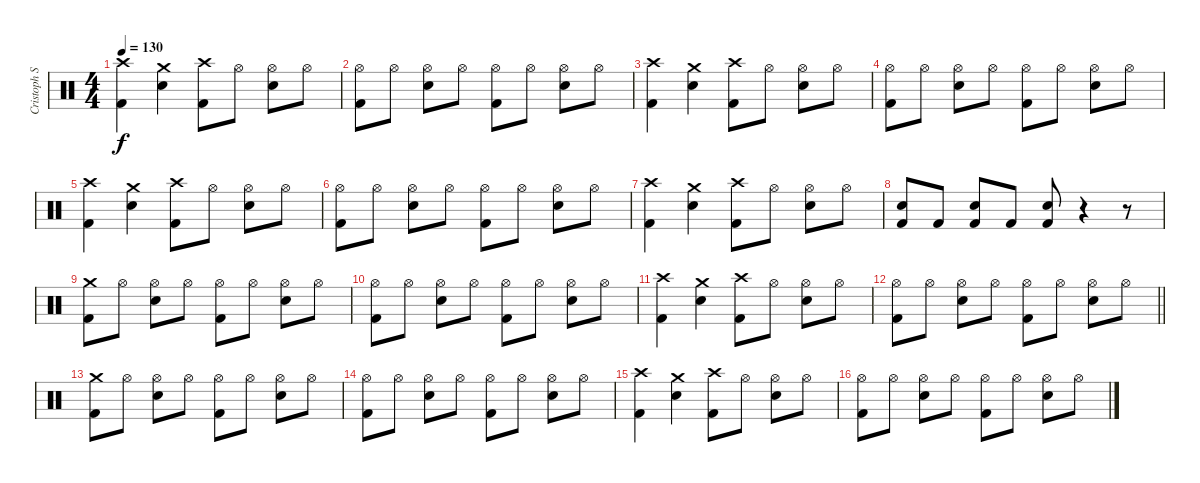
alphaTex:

\track ("Cristoph Schneider" "Cristoph S") {instrument percussion}
\staff {score}
\articulation defaults
\ts (4 4)
\tempo 130
\clef neutral
\ks c
("Crash high (hit)" "Kick (hit) 2").4{dy f} ("Crash medium (hit)" "Electric Snare (hit)").4 ("Crash high (hit)" "Kick (hit) 2").8 "Hi-Hat (open)".8 ("Hi-Hat (open)" "Electric Snare (hit)").8 "Hi-Hat (open)".8 |
("Hi-Hat (open)" "Kick (hit) 2").8 "Hi-Hat (open)".8 ("Hi-Hat (open)" "Electric Snare (hit)").8 "Hi-Hat (open)".8 ("Hi-Hat (open)" "Kick (hit) 2").8 "Hi-Hat (open)".8 ("Hi-Hat (open)" "Electric Snare (hit)").8 "Hi-Hat (open)".8 |
("Crash high (hit)" "Kick (hit) 2").4 ("Crash medium (hit)" "Electric Snare (hit)").4 ("Crash high (hit)" "Kick (hit) 2").8 "Hi-Hat (open)".8 ("Hi-Hat (open)" "Electric Snare (hit)").8 "Hi-Hat (open)".8 |
("Hi-Hat (open)" "Kick (hit) 2").8 "Hi-Hat (open)".8 ("Hi-Hat (open)" "Electric Snare (hit)").8 "Hi-Hat (open)".8 ("Hi-Hat (open)" "Kick (hit) 2").8 "Hi-Hat (open)".8 ("Hi-Hat (open)" "Electric Snare (hit)").8 "Hi-Hat (open)".8 |
("Crash high (hit)" "Kick (hit) 2").4 ("Crash medium (hit)" "Electric Snare (hit)").4 ("Crash high (hit)" "Kick (hit) 2").8 "Hi-Hat (open)".8 ("Hi-Hat (open)" "Electric Snare (hit)").8 "Hi-Hat (open)".8 |
("Hi-Hat (open)" "Kick (hit) 2").8 "Hi-Hat (open)".8 ("Hi-Hat (open)" "Electric Snare (hit)").8 "Hi-Hat (open)".8 ("Hi-Hat (open)" "Kick (hit) 2").8 "Hi-Hat (open)".8 ("Hi-Hat (open)" "Electric Snare (hit)").8 "Hi-Hat (open)".8 |
("Crash high (hit)" "Kick (hit) 2").4 ("Crash medium (hit)" "Electric Snare (hit)").4 ("Crash high (hit)" "Kick (hit) 2").8 "Hi-Hat (open)".8 ("Hi-Hat (open)" "Electric Snare (hit)").8 "Hi-Hat (open)".8 |
("Kick (hit) 2" "Electric Snare (hit)").8 "Kick (hit) 2".8 ("Kick (hit) 2" "Electric Snare (hit)").8 "Kick (hit) 2".8 ("Kick (hit) 2" "Electric Snare (hit)").8 r.4 r.8 |
("Crash medium (hit)" "Kick (hit) 2").8 "Hi-Hat (open)".8 ("Hi-Hat (open)" "Electric Snare (hit)").8 "Hi-Hat (open)".8 ("Hi-Hat (open)" "Kick (hit) 2").8 "Hi-Hat (open)".8 ("Hi-Hat (open)" "Electric Snare (hit)").8 "Hi-Hat (open)".8 |
("Hi-Hat (open)" "Kick (hit) 2").8 "Hi-Hat (open)".8 ("Hi-Hat (open)" "Electric Snare (hit)").8 "Hi-Hat (open)".8 ("Hi-Hat (open)" "Kick (hit) 2").8 "Hi-Hat (open)".8 ("Hi-Hat (open)" "Electric Snare (hit)").8 "Hi-Hat (open)".8 |
("Crash high (hit)" "Kick (hit) 2").4 ("Crash medium (hit)" "Electric Snare (hit)").4 ("Crash high (hit)" "Kick (hit) 2").8 "Hi-Hat (open)".8 ("Hi-Hat (open)" "Electric Snare (hit)").8 "Hi-Hat (open)".8 |
\barLineRight lightlight
("Hi-Hat (open)" "Kick (hit) 2").8 "Hi-Hat (open)".8 ("Hi-Hat (open)" "Electric Snare (hit)").8 "Hi-Hat (open)".8 ("Hi-Hat (open)" "Kick (hit) 2").8 "Hi-Hat (open)".8 ("Hi-Hat (open)" "Electric Snare (hit)").8 "Hi-Hat (open)".8 |
("Crash medium (hit)" "Kick (hit) 2").8 "Hi-Hat (open)".8 ("Hi-Hat (open)" "Electric Snare (hit)").8 "Hi-Hat (open)".8 ("Hi-Hat (open)" "Kick (hit) 2").8 "Hi-Hat (open)".8 ("Hi-Hat (open)" "Electric Snare (hit)").8 "Hi-Hat (open)".8 |
("Hi-Hat (open)" "Kick (hit) 2").8 "Hi-Hat (open)".8 ("Hi-Hat (open)" "Electric Snare (hit)").8 "Hi-Hat (open)".8 ("Hi-Hat (open)" "Kick (hit) 2").8 "Hi-Hat (open)".8 ("Hi-Hat (open)" "Electric Snare (hit)").8 "Hi-Hat (open)".8 |
("Crash high (hit)" "Kick (hit) 2").4 ("Crash medium (hit)" "Electric Snare (hit)").4 ("Crash high (hit)" "Kick (hit) 2").8 "Hi-Hat (open)".8 ("Hi-Hat (open)" "Electric Snare (hit)").8 "Hi-Hat (open)".8 |
("Hi-Hat (open)" "Kick (hit) 2").8 "Hi-Hat (open)".8 ("Hi-Hat (open)" "Electric Snare (hit)").8 "Hi-Hat (open)".8 ("Hi-Hat (open)" "Kick (hit) 2").8 "Hi-Hat (open)".8 ("Hi-Hat (open)" "Electric Snare (hit)").8 "Hi-Hat (open)".8
